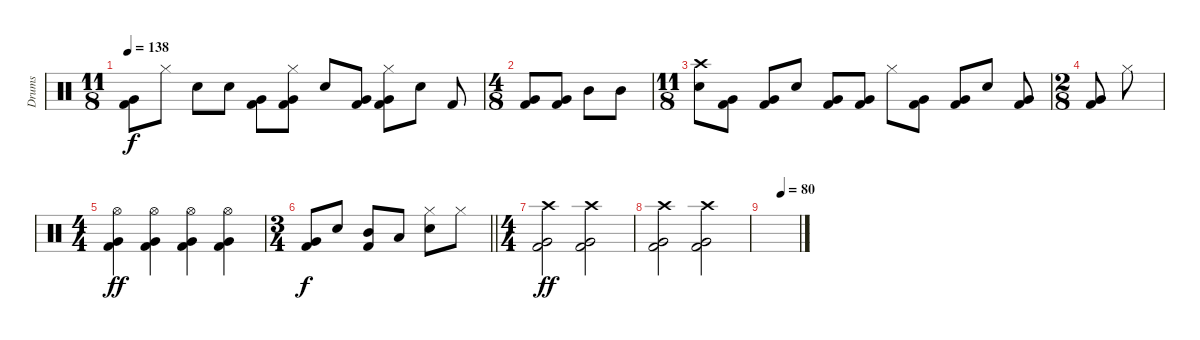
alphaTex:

\track ("Drums" "Drums") {instrument percussion}
\staff {score}
\articulation defaults
\ts (11 8)
\tempo 138
\clef neutral
\ks c
("Very Low Tom (hit)" "Kick (hit) 2").8{dy f} "Hi-Hat (closed)".8 "Electric Snare (hit)".8 "Electric Snare (hit)".8 ("Very Low Tom (hit)" "Kick (hit) 2").8 ("Hi-Hat (closed)" "Very Low Tom (hit)" "Kick (hit) 2").8 "Electric Snare (hit)".8 ("Very Low Tom (hit)" "Kick (hit) 2").8 ("Hi-Hat (closed)" "Very Low Tom (hit)" "Kick (hit) 2").8 "Electric Snare (hit)".8 "Kick (hit) 2".8 |
\ts (4 8)
("Very Low Tom (hit)" "Kick (hit) 2").8 ("Very Low Tom (hit)" "Kick (hit) 2").8 "Mid Tom (hit)".8 "Mid Tom (hit)".8 |
\ts (11 8)
("Crash high (hit)" "Electric Snare (hit)").8 ("Very Low Tom (hit)" "Kick (hit) 2").8 ("Very Low Tom (hit)" "Kick (hit) 2").8 "Electric Snare (hit)".8 ("Very Low Tom (hit)" "Kick (hit) 2").8 ("Very Low Tom (hit)" "Kick (hit) 2").8 "Hi-Hat (closed)".8 ("Very Low Tom (hit)" "Kick (hit) 2").8 ("Very Low Tom (hit)" "Kick (hit) 2").8 "Electric Snare (hit)".8 ("Very Low Tom (hit)" "Kick (hit) 2").8 |
\ts (2 8)
("Very Low Tom (hit)" "Kick (hit) 2").8 "Hi-Hat (closed)".8 |
\ts (4 4)
("Hi-Hat (open)" "Very Low Tom (hit)" "Kick (hit) 2").4{dy ff} ("Hi-Hat (open)" "Very Low Tom (hit)" "Kick (hit) 2").4 ("Hi-Hat (open)" "Very Low Tom (hit)" "Kick (hit) 2").4 ("Hi-Hat (open)" "Very Low Tom (hit)" "Kick (hit) 2").4 |
\ts (3 4)
\barLineRight lightlight
("Very Low Tom (hit)" "Kick (hit) 2").8{dy f} "Electric Snare (hit)".8 ("Mid Tom (hit)" "Kick (hit) 2").8 "Low Tom (hit)".8 ("Hi-Hat (closed)" "Electric Snare (hit)").8 "Hi-Hat (closed)".8 |
\ts (4 4)
("Crash high (hit)" "Very Low Tom (hit)" "Kick (hit) 2").2{dy ff} ("Crash high (hit)" "Very Low Tom (hit)" "Kick (hit) 2").2 |
("Crash high (hit)" "Very Low Tom (hit)" "Kick (hit) 2").2 ("Crash high (hit)" "Very Low Tom (hit)" "Kick (hit) 2").2 |
\tempo (80 0.5)
